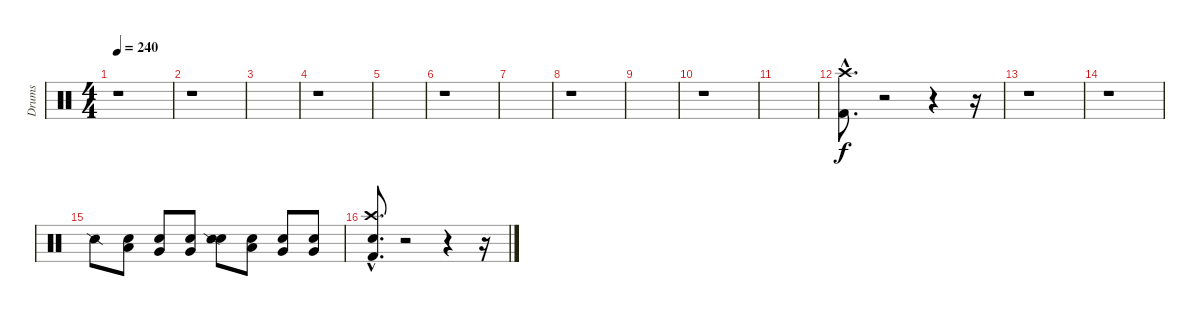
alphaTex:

\track ("Drums" "Drums") {instrument percussion}
\staff {score}
\articulation defaults
\ts (4 4)
\tempo 240
\clef neutral
\ks c
r.1{dy f} |
r.1 |
|
r.1 |
|
r.1 |
|
r.1 |
|
r.1 |
|
("Kick (hit) 2"{hac} "Crash high (hit)"{hac}).8{d} r.2 r.4 r.16 |
r.1 |
r.1 |
"Snare (side stick) 2".8 ("Snare (hit)" "Low Tom (hit)").8 ("Snare (hit)" "Very Low Tom (hit)").8 ("Snare (hit)" "Very Low Tom (hit)").8 ("Snare (hit)" "Snare (side stick) 2").8 ("Snare (hit)" "Low Tom (hit)").8 ("Snare (hit)" "Very Low Tom (hit)").8 ("Snare (hit)" "Very Low Tom (hit)").8 |
("Snare (hit)"{hac} "Kick (hit) 2"{hac} "Crash high (hit)"{hac}).8{d} r.2 r.4 r.16
